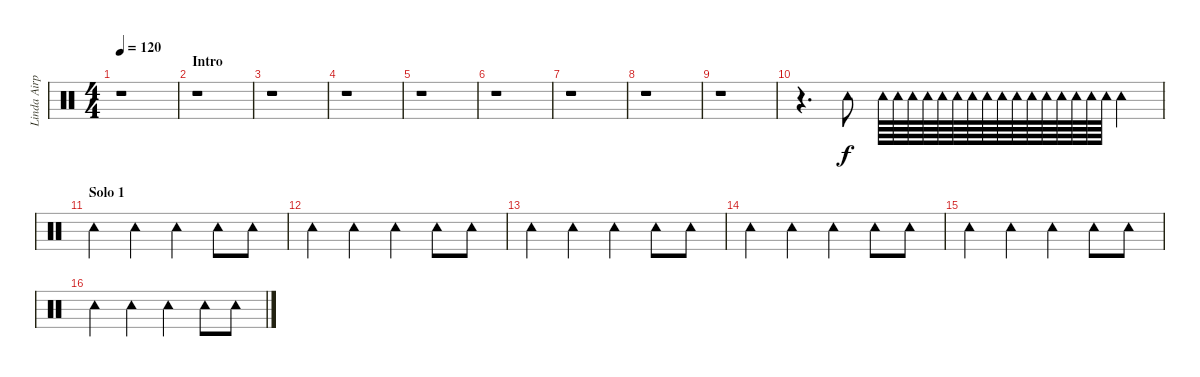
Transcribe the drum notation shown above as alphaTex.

\track ("Linda Airplane" "Linda Airp") {instrument percussion}
\staff {score}
\articulation defaults
\ts (4 4)
\tempo 120
\clef neutral
\ks c
r.1{dy f} |
\section ("" "Intro")
r.1 |
r.1 |
r.1 |
r.1 |
r.1 |
r.1 |
r.1 |
r.1 |
r.4{d} "Tambourine (hit)".8 "Tambourine (hit)".64 "Tambourine (hit)".64 "Tambourine (hit)".64 "Tambourine (hit)".64 "Tambourine (hit)".64 "Tambourine (hit)".64 "Tambourine (hit)".64 "Tambourine (hit)".64 "Tambourine (hit)".64 "Tambourine (hit)".64 "Tambourine (hit)".64 "Tambourine (hit)".64 "Tambourine (hit)".64 "Tambourine (hit)".64 "Tambourine (hit)".64 "Tambourine (hit)".64 "Tambourine (hit)".4 |
\section ("" "Solo 1")
"Tambourine (hit)".4 "Tambourine (hit)".4 "Tambourine (hit)".4 "Tambourine (hit)".8 "Tambourine (hit)".8 |
"Tambourine (hit)".4 "Tambourine (hit)".4 "Tambourine (hit)".4 "Tambourine (hit)".8 "Tambourine (hit)".8 |
"Tambourine (hit)".4 "Tambourine (hit)".4 "Tambourine (hit)".4 "Tambourine (hit)".8 "Tambourine (hit)".8 |
"Tambourine (hit)".4 "Tambourine (hit)".4 "Tambourine (hit)".4 "Tambourine (hit)".8 "Tambourine (hit)".8 |
"Tambourine (hit)".4 "Tambourine (hit)".4 "Tambourine (hit)".4 "Tambourine (hit)".8 "Tambourine (hit)".8 |
"Tambourine (hit)".4 "Tambourine (hit)".4 "Tambourine (hit)".4 "Tambourine (hit)".8 "Tambourine (hit)".8
